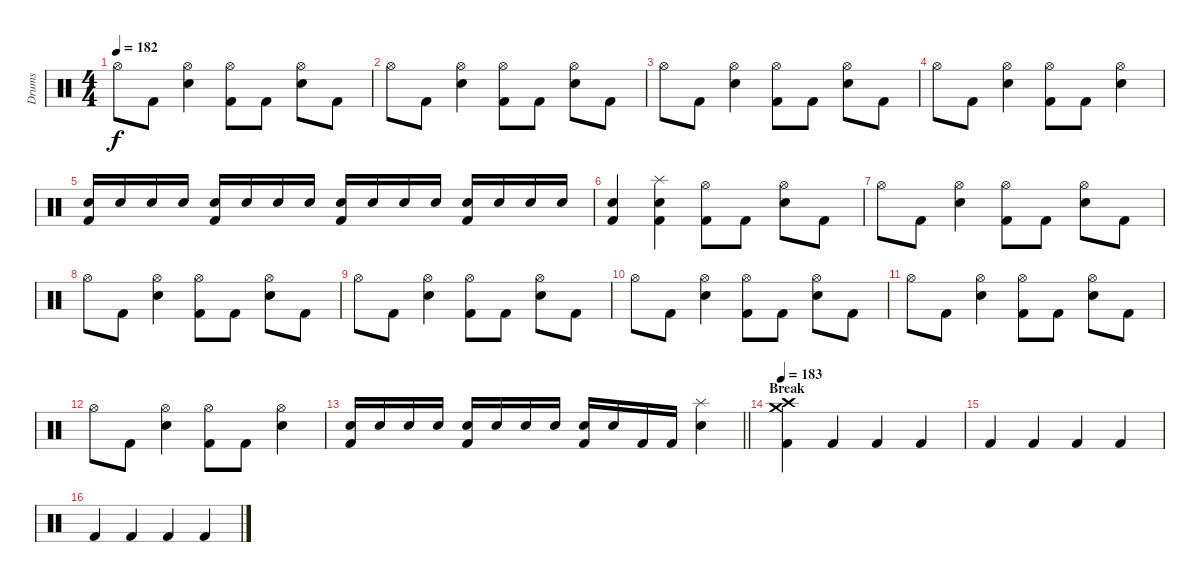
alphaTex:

\track ("Drums" "Drums") {instrument percussion}
\staff {score}
\articulation defaults
\ts (4 4)
\tempo 182
\clef neutral
\ks c "Hi-Hat (open)".8{dy f} "Kick (hit) 2".8
("Hi-Hat (open)" "Electric Snare (hit)").4 ("Hi-Hat (open)" "Kick (hit) 2").8 "Kick (hit) 2".8 ("Hi-Hat (open)" "Electric Snare (hit)").8 "Kick (hit) 2".8 |
"Hi-Hat (open)".8 "Kick (hit) 2".8 ("Hi-Hat (open)" "Electric Snare (hit)").4 ("Hi-Hat (open)" "Kick (hit) 2").8 "Kick (hit) 2".8 ("Hi-Hat (open)" "Electric Snare (hit)").8 "Kick (hit) 2".8 |
"Hi-Hat (open)".8 "Kick (hit) 2".8 ("Hi-Hat (open)" "Electric Snare (hit)").4 ("Hi-Hat (open)" "Kick (hit) 2").8 "Kick (hit) 2".8 ("Hi-Hat (open)" "Electric Snare (hit)").8 "Kick (hit) 2".8 |
"Hi-Hat (open)".8 "Kick (hit) 2".8 ("Hi-Hat (open)" "Electric Snare (hit)").4 ("Hi-Hat (open)" "Kick (hit) 2").8 "Kick (hit) 2".8 ("Hi-Hat (open)" "Electric Snare (hit)").4 |
("Electric Snare (hit)" "Kick (hit) 2").16 "Electric Snare (hit)".16 "Electric Snare (hit)".16 "Electric Snare (hit)".16 ("Electric Snare (hit)" "Kick (hit) 2").16 "Electric Snare (hit)".16 "Electric Snare (hit)".16 "Electric Snare (hit)".16 ("Electric Snare (hit)" "Kick (hit) 2").16 "Electric Snare (hit)".16 "Electric Snare (hit)".16 "Electric Snare (hit)".16 ("Electric Snare (hit)" "Kick (hit) 2").16 "Electric Snare (hit)".16 "Electric Snare (hit)".16 "Electric Snare (hit)".16 |
("Electric Snare (hit)" "Kick (hit) 2").4 ("Splash (hit)" "Electric Snare (hit)" "Kick (hit) 2").4 ("Hi-Hat (open)" "Kick (hit) 2").8 "Kick (hit) 2".8 ("Hi-Hat (open)" "Electric Snare (hit)").8 "Kick (hit) 2".8 |
"Hi-Hat (open)".8 "Kick (hit) 2".8 ("Hi-Hat (open)" "Electric Snare (hit)").4 ("Hi-Hat (open)" "Kick (hit) 2").8 "Kick (hit) 2".8 ("Hi-Hat (open)" "Electric Snare (hit)").8 "Kick (hit) 2".8 |
"Hi-Hat (open)".8 "Kick (hit) 2".8 ("Hi-Hat (open)" "Electric Snare (hit)").4 ("Hi-Hat (open)" "Kick (hit) 2").8 "Kick (hit) 2".8 ("Hi-Hat (open)" "Electric Snare (hit)").8 "Kick (hit) 2".8 |
"Hi-Hat (open)".8 "Kick (hit) 2".8 ("Hi-Hat (open)" "Electric Snare (hit)").4 ("Hi-Hat (open)" "Kick (hit) 2").8 "Kick (hit) 2".8 ("Hi-Hat (open)" "Electric Snare (hit)").8 "Kick (hit) 2".8 |
"Hi-Hat (open)".8 "Kick (hit) 2".8 ("Hi-Hat (open)" "Electric Snare (hit)").4 ("Hi-Hat (open)" "Kick (hit) 2").8 "Kick (hit) 2".8 ("Hi-Hat (open)" "Electric Snare (hit)").8 "Kick (hit) 2".8 |
"Hi-Hat (open)".8 "Kick (hit) 2".8 ("Hi-Hat (open)" "Electric Snare (hit)").4 ("Hi-Hat (open)" "Kick (hit) 2").8 "Kick (hit) 2".8 ("Hi-Hat (open)" "Electric Snare (hit)").8 "Kick (hit) 2".8 |
"Hi-Hat (open)".8 "Kick (hit) 2".8 ("Hi-Hat (open)" "Electric Snare (hit)").4 ("Hi-Hat (open)" "Kick (hit) 2").8 "Kick (hit) 2".8 ("Hi-Hat (open)" "Electric Snare (hit)").4 |
\barLineRight lightlight
("Electric Snare (hit)" "Kick (hit) 2").16 "Electric Snare (hit)".16 "Electric Snare (hit)".16 "Electric Snare (hit)".16 ("Electric Snare (hit)" "Kick (hit) 2").16 "Electric Snare (hit)".16 "Electric Snare (hit)".16 "Electric Snare (hit)".16 ("Electric Snare (hit)" "Kick (hit) 2").16 "Electric Snare (hit)".16 "Kick (hit) 2".16 "Kick (hit) 2".16 ("Splash (hit)" "Electric Snare (hit)").4 |
\section ("" "Break")
\tempo 183
("Crash medium (hit)" "Crash high (hit)" "Kick (hit) 2").4 "Kick (hit) 2".4 "Kick (hit) 2".4 "Kick (hit) 2".4 |
"Kick (hit) 2".4 "Kick (hit) 2".4 "Kick (hit) 2".4 "Kick (hit) 2".4 |
"Kick (hit) 2".4 "Kick (hit) 2".4 "Kick (hit) 2".4 "Kick (hit) 2".4
